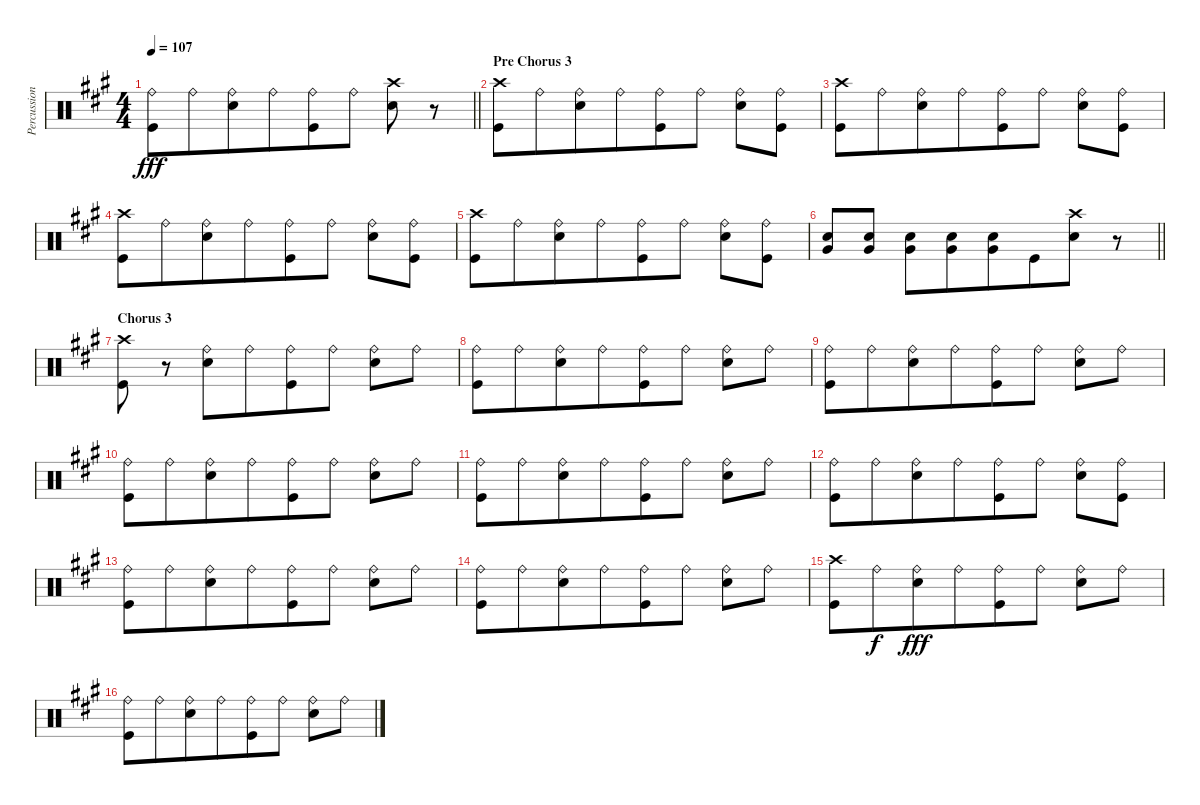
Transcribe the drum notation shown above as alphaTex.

\track ("Percussion" "Percussion") {instrument percussion}
\staff {score}
\articulation defaults
\ts (4 4)
\tempo 107
\clef neutral
\barLineRight lightlight
\ks a
("Kick (hit)" "Ride (bell)").8{dy fff} "Ride (bell)".8{beam merge} ("Electric Snare (hit)" "Ride (bell)").8{beam merge} "Ride (bell)".8{beam merge} ("Ride (bell)" "Kick (hit)").8{beam merge} "Ride (bell)".8 ("Crash high (hit)" "Electric Snare (hit)").8{beam merge} r.8 |
\section ("" "Pre Chorus 3")
("Kick (hit)" "Crash high (hit)").8 "Ride (bell)".8{beam merge} ("Electric Snare (hit)" "Ride (bell)").8{beam merge} "Ride (bell)".8{beam merge} ("Ride (bell)" "Kick (hit)").8{beam merge} "Ride (bell)".8 ("Ride (bell)" "Electric Snare (hit)").8{beam merge} ("Ride (bell)" "Kick (hit)").8 |
("Kick (hit)" "Crash high (hit)").8 "Ride (bell)".8{beam merge} ("Electric Snare (hit)" "Ride (bell)").8{beam merge} "Ride (bell)".8{beam merge} ("Ride (bell)" "Kick (hit)").8{beam merge} "Ride (bell)".8 ("Ride (bell)" "Electric Snare (hit)").8{beam merge} ("Ride (bell)" "Kick (hit)").8 |
("Kick (hit)" "Crash high (hit)").8 "Ride (bell)".8{beam merge} ("Electric Snare (hit)" "Ride (bell)").8{beam merge} "Ride (bell)".8{beam merge} ("Ride (bell)" "Kick (hit)").8{beam merge} "Ride (bell)".8 ("Ride (bell)" "Electric Snare (hit)").8{beam merge} ("Ride (bell)" "Kick (hit)").8 |
("Kick (hit)" "Crash high (hit)").8 "Ride (bell)".8{beam merge} ("Electric Snare (hit)" "Ride (bell)").8{beam merge} "Ride (bell)".8{beam merge} ("Ride (bell)" "Kick (hit)").8{beam merge} "Ride (bell)".8 ("Ride (bell)" "Electric Snare (hit)").8{beam merge} ("Ride (bell)" "Kick (hit)").8 |
\barLineRight lightlight
("Very Low Tom (hit)" "Electric Snare (hit)").8 ("Very Low Tom (hit)" "Electric Snare (hit)").8 ("Very Low Tom (hit)" "Electric Snare (hit)").8 ("Very Low Tom (hit)" "Electric Snare (hit)").8{beam merge} ("Very Low Tom (hit)" "Electric Snare (hit)").8{beam merge} "Kick (hit)".8{beam merge} ("Electric Snare (hit)" "Crash high (hit)").8{beam merge} r.8 |
\section ("" "Chorus 3")
("Kick (hit)" "Crash high (hit)").8 r.8{beam merge} ("Electric Snare (hit)" "Ride (bell)").8{beam merge} "Ride (bell)".8{beam merge} ("Ride (bell)" "Kick (hit)").8{beam merge} "Ride (bell)".8 ("Ride (bell)" "Electric Snare (hit)").8{beam merge} "Ride (bell)".8 |
("Kick (hit)" "Ride (bell)").8 "Ride (bell)".8{beam merge} ("Electric Snare (hit)" "Ride (bell)").8{beam merge} "Ride (bell)".8{beam merge} ("Ride (bell)" "Kick (hit)").8{beam merge} "Ride (bell)".8 ("Ride (bell)" "Electric Snare (hit)").8{beam merge} "Ride (bell)".8 |
("Kick (hit)" "Ride (bell)").8 "Ride (bell)".8{beam merge} ("Electric Snare (hit)" "Ride (bell)").8{beam merge} "Ride (bell)".8{beam merge} ("Ride (bell)" "Kick (hit)").8{beam merge} "Ride (bell)".8 ("Ride (bell)" "Electric Snare (hit)").8{beam merge} "Ride (bell)".8 |
("Kick (hit)" "Ride (bell)").8 "Ride (bell)".8{beam merge} ("Electric Snare (hit)" "Ride (bell)").8{beam merge} "Ride (bell)".8{beam merge} ("Ride (bell)" "Kick (hit)").8{beam merge} "Ride (bell)".8 ("Ride (bell)" "Electric Snare (hit)").8{beam merge} "Ride (bell)".8 |
("Kick (hit)" "Ride (bell)").8 "Ride (bell)".8{beam merge} ("Electric Snare (hit)" "Ride (bell)").8{beam merge} "Ride (bell)".8{beam merge} ("Ride (bell)" "Kick (hit)").8{beam merge} "Ride (bell)".8 ("Ride (bell)" "Electric Snare (hit)").8{beam merge} "Ride (bell)".8 |
("Kick (hit)" "Ride (bell)").8 "Ride (bell)".8{beam merge} ("Electric Snare (hit)" "Ride (bell)").8{beam merge} "Ride (bell)".8{beam merge} ("Ride (bell)" "Kick (hit)").8{beam merge} "Ride (bell)".8 ("Ride (bell)" "Electric Snare (hit)").8{beam merge} ("Ride (bell)" "Kick (hit)").8 |
("Kick (hit)" "Ride (bell)").8 "Ride (bell)".8{beam merge} ("Electric Snare (hit)" "Ride (bell)").8{beam merge} "Ride (bell)".8{beam merge} ("Ride (bell)" "Kick (hit)").8{beam merge} "Ride (bell)".8 ("Ride (bell)" "Electric Snare (hit)").8{beam merge} "Ride (bell)".8 |
("Kick (hit)" "Ride (bell)").8 "Ride (bell)".8{beam merge} ("Electric Snare (hit)" "Ride (bell)").8{beam merge} "Ride (bell)".8{beam merge} ("Ride (bell)" "Kick (hit)").8{beam merge} "Ride (bell)".8 ("Ride (bell)" "Electric Snare (hit)").8{beam merge} "Ride (bell)".8 |
("Kick (hit)" "Crash high (hit)").8 "Ride (bell)".8{dy f beam merge} ("Electric Snare (hit)" "Ride (bell)").8{dy fff beam merge} "Ride (bell)".8{beam merge} ("Ride (bell)" "Kick (hit)").8{beam merge} "Ride (bell)".8 ("Ride (bell)" "Electric Snare (hit)").8{beam merge} "Ride (bell)".8 |
("Kick (hit)" "Ride (bell)").8 "Ride (bell)".8{beam merge} ("Electric Snare (hit)" "Ride (bell)").8{beam merge} "Ride (bell)".8{beam merge} ("Ride (bell)" "Kick (hit)").8{beam merge} "Ride (bell)".8 ("Ride (bell)" "Electric Snare (hit)").8{beam merge} "Ride (bell)".8
